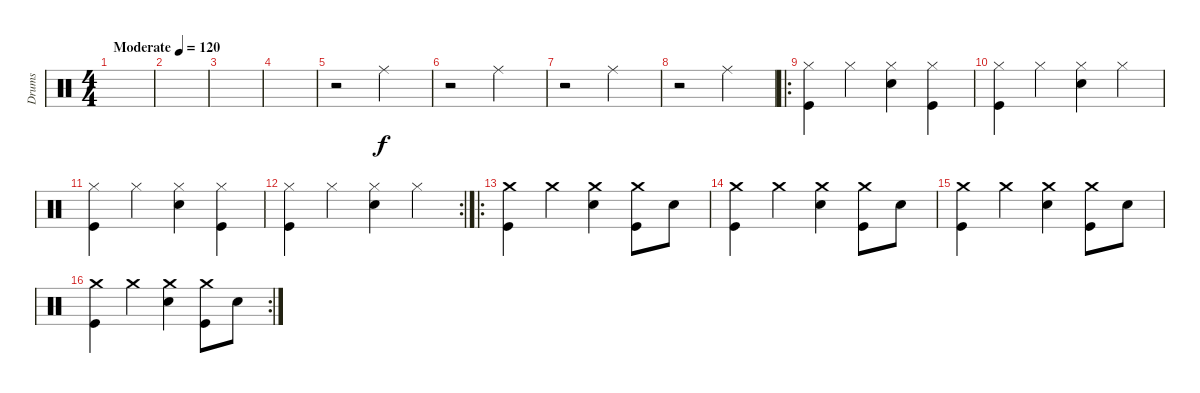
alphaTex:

\track ("Drums" "Drums") {instrument percussion}
\staff {score}
\articulation defaults
\ts (4 4)
\tempo (120 "Moderate")
\clef neutral
\ks c
|
|
|
|
r.2 "Ride (middle)".2 |
r.2 "Ride (middle)".2 |
r.2 "Ride (middle)".2 |
r.2 "Ride (middle)".2 |
\ro
("Hi-Hat (closed)" "Kick (hit)").4 "Hi-Hat (closed)".4 ("Hi-Hat (closed)" "Snare (hit) 2").4 ("Hi-Hat (closed)" "Kick (hit)").4 |
("Hi-Hat (closed)" "Kick (hit)").4 "Hi-Hat (closed)".4 ("Hi-Hat (closed)" "Snare (hit) 2").4 "Hi-Hat (closed)".4 |
("Hi-Hat (closed)" "Kick (hit)").4 "Hi-Hat (closed)".4 ("Hi-Hat (closed)" "Snare (hit) 2").4 ("Hi-Hat (closed)" "Kick (hit)").4 |
\rc 2
("Hi-Hat (closed)" "Kick (hit)").4 "Hi-Hat (closed)".4 ("Hi-Hat (closed)" "Snare (hit) 2").4 "Hi-Hat (closed)".4 |
\ro
("Crash medium (hit)" "Kick (hit)").4 "Crash medium (hit)".4 ("Crash medium (hit)" "Snare (hit) 2").4 ("Crash medium (hit)" "Kick (hit)").8 "Snare (hit) 2".8 |
("Crash medium (hit)" "Kick (hit)").4 "Crash medium (hit)".4 ("Crash medium (hit)" "Snare (hit) 2").4 ("Crash medium (hit)" "Kick (hit)").8 "Snare (hit) 2".8 |
("Crash medium (hit)" "Kick (hit)").4 "Crash medium (hit)".4 ("Crash medium (hit)" "Snare (hit) 2").4 ("Crash medium (hit)" "Kick (hit)").8 "Snare (hit) 2".8 |
\rc 2
("Crash medium (hit)" "Kick (hit)").4 "Crash medium (hit)".4 ("Crash medium (hit)" "Snare (hit) 2").4 ("Crash medium (hit)" "Kick (hit)").8 "Snare (hit) 2".8
